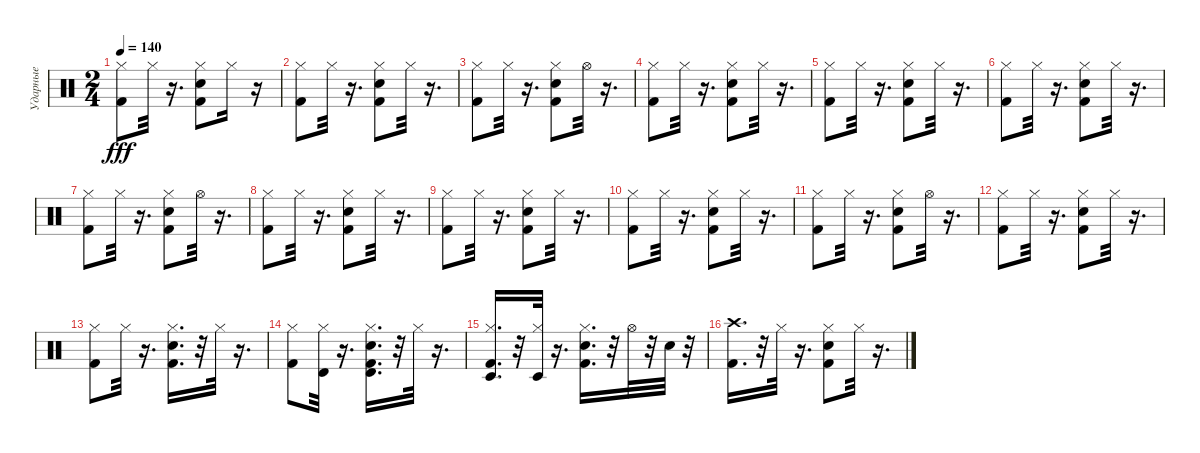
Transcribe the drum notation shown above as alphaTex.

\track ("Ударные" "Ударные") {instrument percussion}
\staff {score}
\articulation defaults
\ts (2 4)
\tempo 140
\clef neutral
\ks c
("Kick (hit) 2" "Hi-Hat (closed)").8{dy fff} "Hi-Hat (closed)".32 r.16{d} ("Snare (hit) 2" "Kick (hit) 2" "Hi-Hat (closed)").8 "Hi-Hat (closed)".16 r.16 |
("Kick (hit) 2" "Hi-Hat (closed)").8 "Hi-Hat (closed)".32 r.16{d} ("Snare (hit) 2" "Kick (hit) 2" "Hi-Hat (closed)").8 "Hi-Hat (closed)".32 r.16{d} |
("Kick (hit) 2" "Hi-Hat (closed)").8 "Hi-Hat (closed)".32 r.16{d} ("Kick (hit) 2" "Snare (hit) 2" "Hi-Hat (closed)").8 "Hi-Hat (open)".32 r.16{d} |
("Kick (hit) 2" "Hi-Hat (closed)").8 "Hi-Hat (closed)".32 r.16{d} ("Snare (hit) 2" "Kick (hit) 2" "Hi-Hat (closed)").8 "Hi-Hat (closed)".32 r.16{d} |
("Kick (hit) 2" "Hi-Hat (closed)").8 "Hi-Hat (closed)".32 r.16{d} ("Snare (hit) 2" "Kick (hit) 2" "Hi-Hat (closed)").8 "Hi-Hat (closed)".32 r.16{d} |
("Kick (hit) 2" "Hi-Hat (closed)").8 "Hi-Hat (closed)".32 r.16{d} ("Kick (hit) 2" "Hi-Hat (closed)" "Snare (hit) 2").8 "Hi-Hat (closed)".32 r.16{d} |
("Kick (hit) 2" "Hi-Hat (closed)").8 "Hi-Hat (closed)".32 r.16{d} ("Kick (hit) 2" "Snare (hit) 2" "Hi-Hat (closed)").8 "Hi-Hat (open)".32 r.16{d} |
("Kick (hit) 2" "Hi-Hat (closed)").8 "Hi-Hat (closed)".32 r.16{d} ("Snare (hit) 2" "Kick (hit) 2" "Hi-Hat (closed)").8 "Hi-Hat (closed)".32 r.16{d} |
("Kick (hit) 2" "Hi-Hat (closed)").8 "Hi-Hat (closed)".32 r.16{d} ("Snare (hit) 2" "Kick (hit) 2" "Hi-Hat (closed)").8 "Hi-Hat (closed)".32 r.16{d} |
("Kick (hit) 2" "Hi-Hat (closed)").8 "Hi-Hat (closed)".32 r.16{d} ("Snare (hit) 2" "Kick (hit) 2" "Hi-Hat (closed)").8 "Hi-Hat (closed)".32 r.16{d} |
("Kick (hit) 2" "Hi-Hat (closed)").8 "Hi-Hat (closed)".32 r.16{d} ("Snare (hit) 2" "Kick (hit) 2" "Hi-Hat (closed)").8 "Hi-Hat (open)".32 r.16{d} |
("Kick (hit) 2" "Hi-Hat (closed)").8 "Hi-Hat (closed)".32 r.16{d} ("Snare (hit) 2" "Kick (hit) 2" "Hi-Hat (closed)").8 "Hi-Hat (closed)".32 r.16{d} |
("Kick (hit) 2" "Hi-Hat (closed)").8 "Hi-Hat (closed)".32 r.16{d} ("Snare (hit) 2" "Kick (hit) 2" "Hi-Hat (closed)").16{d} r.32 "Hi-Hat (closed)".32 r.16{d} |
("Kick (hit) 2" "Hi-Hat (closed)").8 ("Timbale high (hit)" "Hi-Hat (closed)").32 r.16{d} ("Timbale high (hit)" "Snare (hit) 2" "Kick (hit) 2" "Hi-Hat (closed)").16{d} r.32 "Hi-Hat (closed)".32 r.16{d} |
("Hi-Hat (closed)" "Kick (hit) 2" "Timbale low (hit)").16{d} r.32 ("Timbale low (hit)" "Hi-Hat (closed)").32 r.16{d} ("Snare (hit) 2" "Kick (hit) 2" "Hi-Hat (closed)").16{d} r.32 "Hi-Hat (open)".32 r.32 "Snare (hit) 2".32 r.32 |
("Kick (hit) 2" "Crash high (hit)").16{d} r.32 "Hi-Hat (closed)".32 r.16{d} ("Snare (hit) 2" "Hi-Hat (closed)" "Kick (hit) 2").8 "Hi-Hat (closed)".32 r.16{d}
